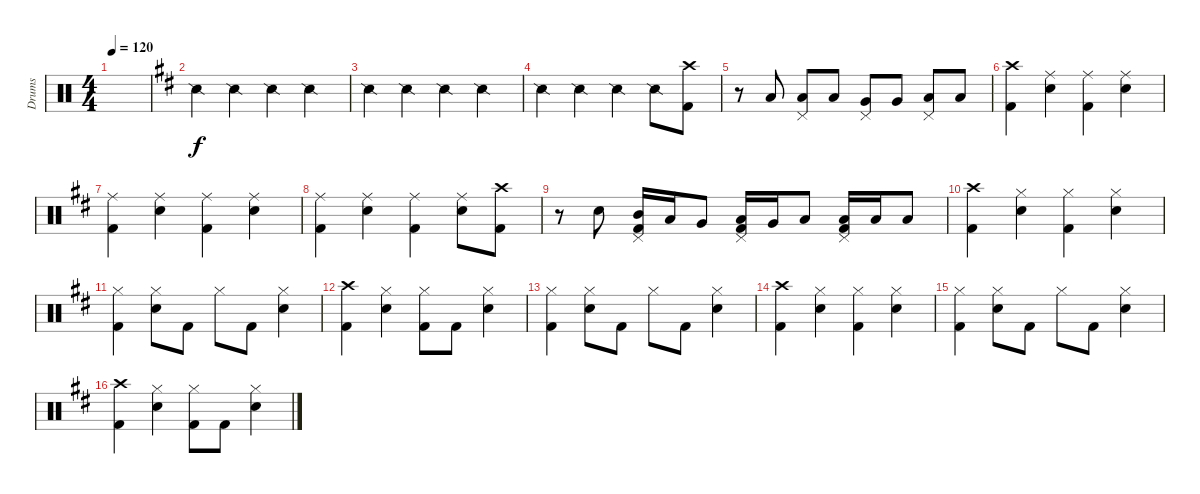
\track ("Drums" "Drums") {instrument percussion}
\staff {score}
\articulation defaults
\ts (4 4)
\tempo 120
\clef neutral
\ks c
|
\ks bminor "Snare (side stick) 2".4 "Snare (side stick) 2".4 "Snare (side stick) 2".4 "Snare (side stick) 2".4
|
"Snare (side stick) 2".4 "Snare (side stick) 2".4 "Snare (side stick) 2".4 "Snare (side stick) 2".4 |
"Snare (side stick) 2".4 "Snare (side stick) 2".4 "Snare (side stick) 2".4 "Snare (side stick) 2".8 ("Crash high (hit)" "Kick (hit) 2").8 |
r.8 "Low Tom (hit)".8 ("Pedal Hi-Hat (hit)" "Low Tom (hit)").8 "Low Tom (hit)".8 ("Pedal Hi-Hat (hit)" "Very Low Tom (hit)").8 "Very Low Tom (hit)".8 ("Pedal Hi-Hat (hit)" "Low Floor Tom (hit)").8 "Low Floor Tom (hit)".8 |
("Crash high (hit)" "Kick (hit) 2").4 ("Ride (middle)" "Electric Snare (hit)").4 ("Ride (middle)" "Kick (hit) 2").4 ("Ride (middle)" "Electric Snare (hit)").4 |
("Ride (middle)" "Kick (hit) 2").4 ("Ride (middle)" "Electric Snare (hit)").4 ("Ride (middle)" "Kick (hit) 2").4 ("Ride (middle)" "Electric Snare (hit)").4 |
("Ride (middle)" "Kick (hit) 2").4 ("Ride (middle)" "Electric Snare (hit)").4 ("Ride (middle)" "Kick (hit) 2").4 ("Ride (middle)" "Electric Snare (hit)").8 ("Crash high (hit)" "Kick (hit) 2").8 |
r.8 "Electric Snare (hit)".8 ("Pedal Hi-Hat (hit)" "Mid Tom (hit)" "Kick (hit) 2").16 "Low Tom (hit)".16 "Very Low Tom (hit)".8 ("Pedal Hi-Hat (hit)" "Low Tom (hit)" "Kick (hit) 2").16 "Very Low Tom (hit)".16 "Low Floor Tom (hit)".8 ("Pedal Hi-Hat (hit)" "Low Floor Tom (hit)" "Kick (hit) 2").16 "Low Floor Tom (hit)".16 "Low Floor Tom (hit)".8 |
("Crash high (hit)" "Kick (hit) 2").4 ("Hi-Hat (closed)" "Electric Snare (hit)").4 ("Hi-Hat (closed)" "Kick (hit) 2").4 ("Hi-Hat (closed)" "Electric Snare (hit)").4 |
("Hi-Hat (closed)" "Kick (hit) 2").4 ("Hi-Hat (closed)" "Electric Snare (hit)").8 "Kick (hit) 2".8 "Hi-Hat (closed)".8 "Kick (hit) 2".8 ("Hi-Hat (closed)" "Electric Snare (hit)").4 |
("Crash high (hit)" "Kick (hit) 2").4 ("Hi-Hat (closed)" "Electric Snare (hit)").4 ("Hi-Hat (closed)" "Kick (hit) 2").8 "Kick (hit) 2".8 ("Hi-Hat (closed)" "Electric Snare (hit)").4 |
("Hi-Hat (closed)" "Kick (hit) 2").4 ("Hi-Hat (closed)" "Electric Snare (hit)").8 "Kick (hit) 2".8 "Hi-Hat (closed)".8 "Kick (hit) 2".8 ("Hi-Hat (closed)" "Electric Snare (hit)").4 |
("Crash high (hit)" "Kick (hit) 2").4 ("Hi-Hat (closed)" "Electric Snare (hit)").4 ("Hi-Hat (closed)" "Kick (hit) 2").4 ("Hi-Hat (closed)" "Electric Snare (hit)").4 |
("Hi-Hat (closed)" "Kick (hit) 2").4 ("Hi-Hat (closed)" "Electric Snare (hit)").8 "Kick (hit) 2".8 "Hi-Hat (closed)".8 "Kick (hit) 2".8 ("Hi-Hat (closed)" "Electric Snare (hit)").4 |
("Crash high (hit)" "Kick (hit) 2").4 ("Hi-Hat (closed)" "Electric Snare (hit)").4 ("Hi-Hat (closed)" "Kick (hit) 2").8 "Kick (hit) 2".8 ("Hi-Hat (closed)" "Electric Snare (hit)").4
